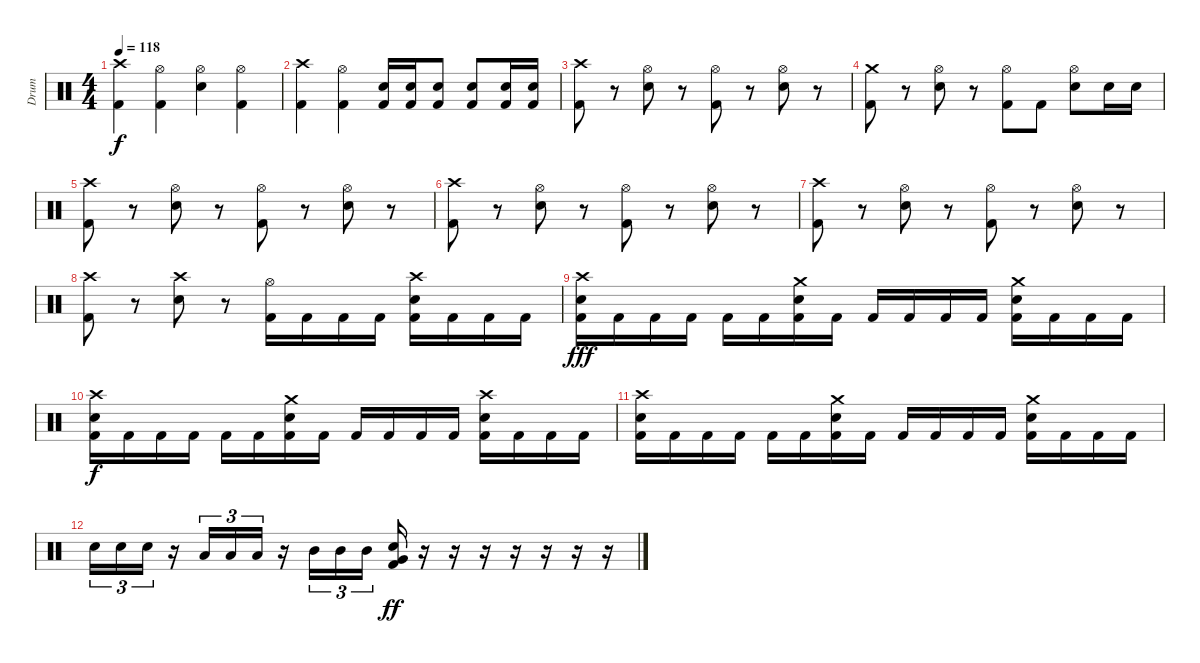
\track ("Drum" "Drum") {instrument percussion}
\staff {score}
\articulation defaults
\ts (4 4)
\tempo 118
\clef neutral
\ks c
("Crash high (hit)" "Kick (hit) 2").4{dy f} ("Hi-Hat (open)" "Kick (hit) 2").4 ("Hi-Hat (open)" "Electric Snare (hit)").4 ("Hi-Hat (open)" "Kick (hit) 2").4 |
("Crash high (hit)" "Kick (hit) 2").4 ("Hi-Hat (open)" "Kick (hit) 2").4 ("Kick (hit) 2" "Electric Snare (hit)").16 ("Kick (hit) 2" "Electric Snare (hit)").16 ("Kick (hit) 2" "Electric Snare (hit)").8 ("Electric Snare (hit)" "Kick (hit) 2").8 ("Electric Snare (hit)" "Kick (hit) 2").16 ("Electric Snare (hit)" "Kick (hit) 2").16 |
("Crash high (hit)" "Kick (hit) 2").8 r.8 ("Hi-Hat (open)" "Electric Snare (hit)").8 r.8 ("Hi-Hat (open)" "Kick (hit) 2").8 r.8 ("Hi-Hat (open)" "Electric Snare (hit)").8 r.8 |
("Crash medium (hit)" "Kick (hit) 2").8 r.8 ("Hi-Hat (open)" "Electric Snare (hit)").8 r.8 ("Hi-Hat (open)" "Kick (hit) 2").8 "Kick (hit) 2".8 ("Hi-Hat (open)" "Electric Snare (hit)").8 "Electric Snare (hit)".16 "Electric Snare (hit)".16 |
("Crash high (hit)" "Kick (hit) 2").8 r.8 ("Hi-Hat (open)" "Electric Snare (hit)").8 r.8 ("Hi-Hat (open)" "Kick (hit) 2").8 r.8 ("Hi-Hat (open)" "Electric Snare (hit)").8 r.8 |
("Crash high (hit)" "Kick (hit) 2").8 r.8 ("Hi-Hat (open)" "Electric Snare (hit)").8 r.8 ("Hi-Hat (open)" "Kick (hit) 2").8 r.8 ("Hi-Hat (open)" "Electric Snare (hit)").8 r.8 |
("Crash high (hit)" "Kick (hit) 2").8 r.8 ("Hi-Hat (open)" "Electric Snare (hit)").8 r.8 ("Hi-Hat (open)" "Kick (hit) 2").8 r.8 ("Hi-Hat (open)" "Electric Snare (hit)").8 r.8 |
("Crash high (hit)" "Kick (hit) 2").8 r.8 ("Crash high (hit)" "Electric Snare (hit)").8 r.8 ("Hi-Hat (open)" "Kick (hit) 2").16 "Kick (hit) 2".16 "Kick (hit) 2".16 "Kick (hit) 2".16 ("Electric Snare (hit)" "Kick (hit) 2" "Crash high (hit)").16 "Kick (hit) 2".16 "Kick (hit) 2".16 "Kick (hit) 2".16 |
("Crash high (hit)" "Electric Snare (hit)" "Kick (hit) 2").16{dy fff} "Kick (hit) 2".16 "Kick (hit) 2".16 "Kick (hit) 2".16 "Kick (hit) 2".16 "Kick (hit) 2".16 ("Crash medium (hit)" "Electric Snare (hit)" "Kick (hit) 2").16 "Kick (hit) 2".16 "Kick (hit) 2".16 "Kick (hit) 2".16 "Kick (hit) 2".16 "Kick (hit) 2".16 ("Crash medium (hit)" "Electric Snare (hit)" "Kick (hit) 2").16 "Kick (hit) 2".16 "Kick (hit) 2".16 "Kick (hit) 2".16 |
("Crash high (hit)" "Electric Snare (hit)" "Kick (hit) 2").16{dy f} "Kick (hit) 2".16 "Kick (hit) 2".16 "Kick (hit) 2".16 "Kick (hit) 2".16 "Kick (hit) 2".16 ("Crash medium (hit)" "Electric Snare (hit)" "Kick (hit) 2").16 "Kick (hit) 2".16 "Kick (hit) 2".16 "Kick (hit) 2".16 "Kick (hit) 2".16 "Kick (hit) 2".16 ("Crash high (hit)" "Electric Snare (hit)" "Kick (hit) 2").16 "Kick (hit) 2".16 "Kick (hit) 2".16 "Kick (hit) 2".16 |
("Crash high (hit)" "Electric Snare (hit)" "Kick (hit) 2").16 "Kick (hit) 2".16 "Kick (hit) 2".16 "Kick (hit) 2".16 "Kick (hit) 2".16 "Kick (hit) 2".16 ("Crash medium (hit)" "Electric Snare (hit)" "Kick (hit) 2").16 "Kick (hit) 2".16 "Kick (hit) 2".16 "Kick (hit) 2".16 "Kick (hit) 2".16 "Kick (hit) 2".16 ("Crash medium (hit)" "Electric Snare (hit)" "Kick (hit) 2").16 "Kick (hit) 2".16 "Kick (hit) 2".16 "Kick (hit) 2".16 |
"Electric Snare (hit)".16{tu (3 2)} "Electric Snare (hit)".16{tu (3 2)} "Electric Snare (hit)".16{tu (3 2)} r.16 "Low Tom (hit)".16{tu (3 2)} "Low Tom (hit)".16{tu (3 2)} "Low Tom (hit)".16{tu (3 2)} r.16 "Mid Tom (hit)".16{tu (3 2)} "Mid Tom (hit)".16{tu (3 2)} "Mid Tom (hit)".16{tu (3 2)} ("Kick (hit) 2" "Very Low Tom (hit)" "Electric Snare (hit)").16{dy ff} r.16 r.16 r.16 r.16 r.16 r.16 r.16
